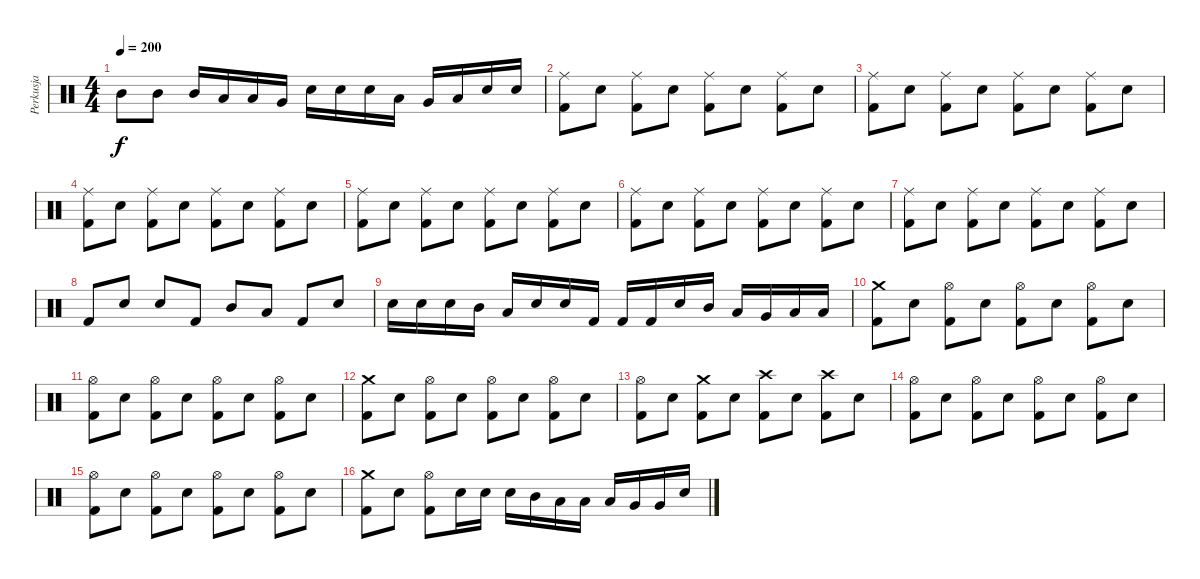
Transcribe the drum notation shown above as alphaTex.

\track ("Perkusja" "Perkusja") {instrument percussion}
\staff {score}
\articulation defaults
\ts (4 4)
\tempo 200
\clef neutral
\ks c "Mid Tom (hit)".8{dy f} "Mid Tom (hit)".8 "Mid Tom (hit)".16 "Low Tom (hit)".16 "Low Tom (hit)".16 "Very Low Tom (hit)".16 "Snare (hit) 2".16 "Snare (hit) 2".16 "Snare (hit) 2".16 "Low Tom (hit)".16 "Very Low Tom (hit)".16 "Low Floor Tom (hit)".16 "Snare (hit) 2".16 "Snare (hit) 2".16
|
("Ride (middle)" "Kick (hit) 2").8 "Snare (hit) 2".8 ("Ride (middle)" "Kick (hit) 2").8 "Snare (hit) 2".8 ("Ride (middle)" "Kick (hit) 2").8 "Snare (hit) 2".8 ("Ride (middle)" "Kick (hit) 2").8 "Snare (hit) 2".8 |
("Ride (middle)" "Kick (hit) 2").8 "Snare (hit) 2".8 ("Ride (middle)" "Kick (hit) 2").8 "Snare (hit) 2".8 ("Ride (middle)" "Kick (hit) 2").8 "Snare (hit) 2".8 ("Ride (middle)" "Kick (hit) 2").8 "Snare (hit) 2".8 |
("Ride (middle)" "Kick (hit) 2").8 "Snare (hit) 2".8 ("Ride (middle)" "Kick (hit) 2").8 "Snare (hit) 2".8 ("Ride (middle)" "Kick (hit) 2").8 "Snare (hit) 2".8 ("Ride (middle)" "Kick (hit) 2").8 "Snare (hit) 2".8 |
("Ride (middle)" "Kick (hit) 2").8 "Snare (hit) 2".8 ("Ride (middle)" "Kick (hit) 2").8 "Snare (hit) 2".8 ("Ride (middle)" "Kick (hit) 2").8 "Snare (hit) 2".8 ("Ride (middle)" "Kick (hit) 2").8 "Snare (hit) 2".8 |
("Ride (middle)" "Kick (hit) 2").8 "Snare (hit) 2".8 ("Ride (middle)" "Kick (hit) 2").8 "Snare (hit) 2".8 ("Ride (middle)" "Kick (hit) 2").8 "Snare (hit) 2".8 ("Ride (middle)" "Kick (hit) 2").8 "Snare (hit) 2".8 |
("Ride (middle)" "Kick (hit) 2").8 "Snare (hit) 2".8 ("Ride (middle)" "Kick (hit) 2").8 "Snare (hit) 2".8 ("Ride (middle)" "Kick (hit) 2").8 "Snare (hit) 2".8 ("Ride (middle)" "Kick (hit) 2").8 "Snare (hit) 2".8 |
"Kick (hit) 2".8 "Snare (hit) 2".8 "Snare (hit) 2".8 "Kick (hit) 2".8 "Mid Tom (hit)".8 "Low Tom (hit)".8 "Kick (hit) 2".8 "Snare (hit) 2".8 |
"Snare (hit) 2".16 "Snare (hit) 2".16 "Snare (hit) 2".16 "Mid Tom (hit)".16 "Low Tom (hit)".16 "Snare (hit) 2".16 "Snare (hit) 2".16 "Kick (hit) 2".16 "Kick (hit) 2".16 "Kick (hit) 2".16 "Snare (hit) 2".16 "Mid Tom (hit)".16 "Low Tom (hit)".16 "Very Low Tom (hit)".16 "Low Floor Tom (hit)".16 "Low Floor Tom (hit)".16 |
("Crash medium (hit)" "Kick (hit) 2").8 "Snare (hit) 2".8 ("Hi-Hat (open)" "Kick (hit) 2").8 "Snare (hit) 2".8 ("Hi-Hat (open)" "Kick (hit) 2").8 "Snare (hit) 2".8 ("Hi-Hat (open)" "Kick (hit) 2").8 "Snare (hit) 2".8 |
("Hi-Hat (open)" "Kick (hit) 2").8 "Snare (hit) 2".8 ("Hi-Hat (open)" "Kick (hit) 2").8 "Snare (hit) 2".8 ("Hi-Hat (open)" "Kick (hit) 2").8 "Snare (hit) 2".8 ("Hi-Hat (open)" "Kick (hit) 2").8 "Snare (hit) 2".8 |
("Crash medium (hit)" "Kick (hit) 2").8 "Snare (hit) 2".8 ("Hi-Hat (open)" "Kick (hit) 2").8 "Snare (hit) 2".8 ("Hi-Hat (open)" "Kick (hit) 2").8 "Snare (hit) 2".8 ("Hi-Hat (open)" "Kick (hit) 2").8 "Snare (hit) 2".8 |
("Hi-Hat (open)" "Kick (hit) 2").8 "Snare (hit) 2".8 ("Crash medium (hit)" "Kick (hit) 2").8 "Snare (hit) 2".8 ("Crash high (hit)" "Kick (hit) 2").8 "Snare (hit) 2".8 ("Crash high (hit)" "Kick (hit) 2").8 "Snare (hit) 2".8 |
("Hi-Hat (open)" "Kick (hit) 2").8 "Snare (hit) 2".8 ("Hi-Hat (open)" "Kick (hit) 2").8 "Snare (hit) 2".8 ("Hi-Hat (open)" "Kick (hit) 2").8 "Snare (hit) 2".8 ("Hi-Hat (open)" "Kick (hit) 2").8 "Snare (hit) 2".8 |
("Hi-Hat (open)" "Kick (hit) 2").8 "Snare (hit) 2".8 ("Hi-Hat (open)" "Kick (hit) 2").8 "Snare (hit) 2".8 ("Hi-Hat (open)" "Kick (hit) 2").8 "Snare (hit) 2".8 ("Hi-Hat (open)" "Kick (hit) 2").8 "Snare (hit) 2".8 |
("Crash medium (hit)" "Kick (hit) 2").8 "Snare (hit) 2".8 ("Hi-Hat (open)" "Kick (hit) 2").8 "Snare (hit) 2".16 "Snare (hit) 2".16 "Snare (hit) 2".16 "Mid Tom (hit)".16 "Low Tom (hit)".16 "Low Tom (hit)".16 "Low Tom (hit)".16 "Very Low Tom (hit)".16 "Very Low Tom (hit)".16 "Snare (hit) 2".16
